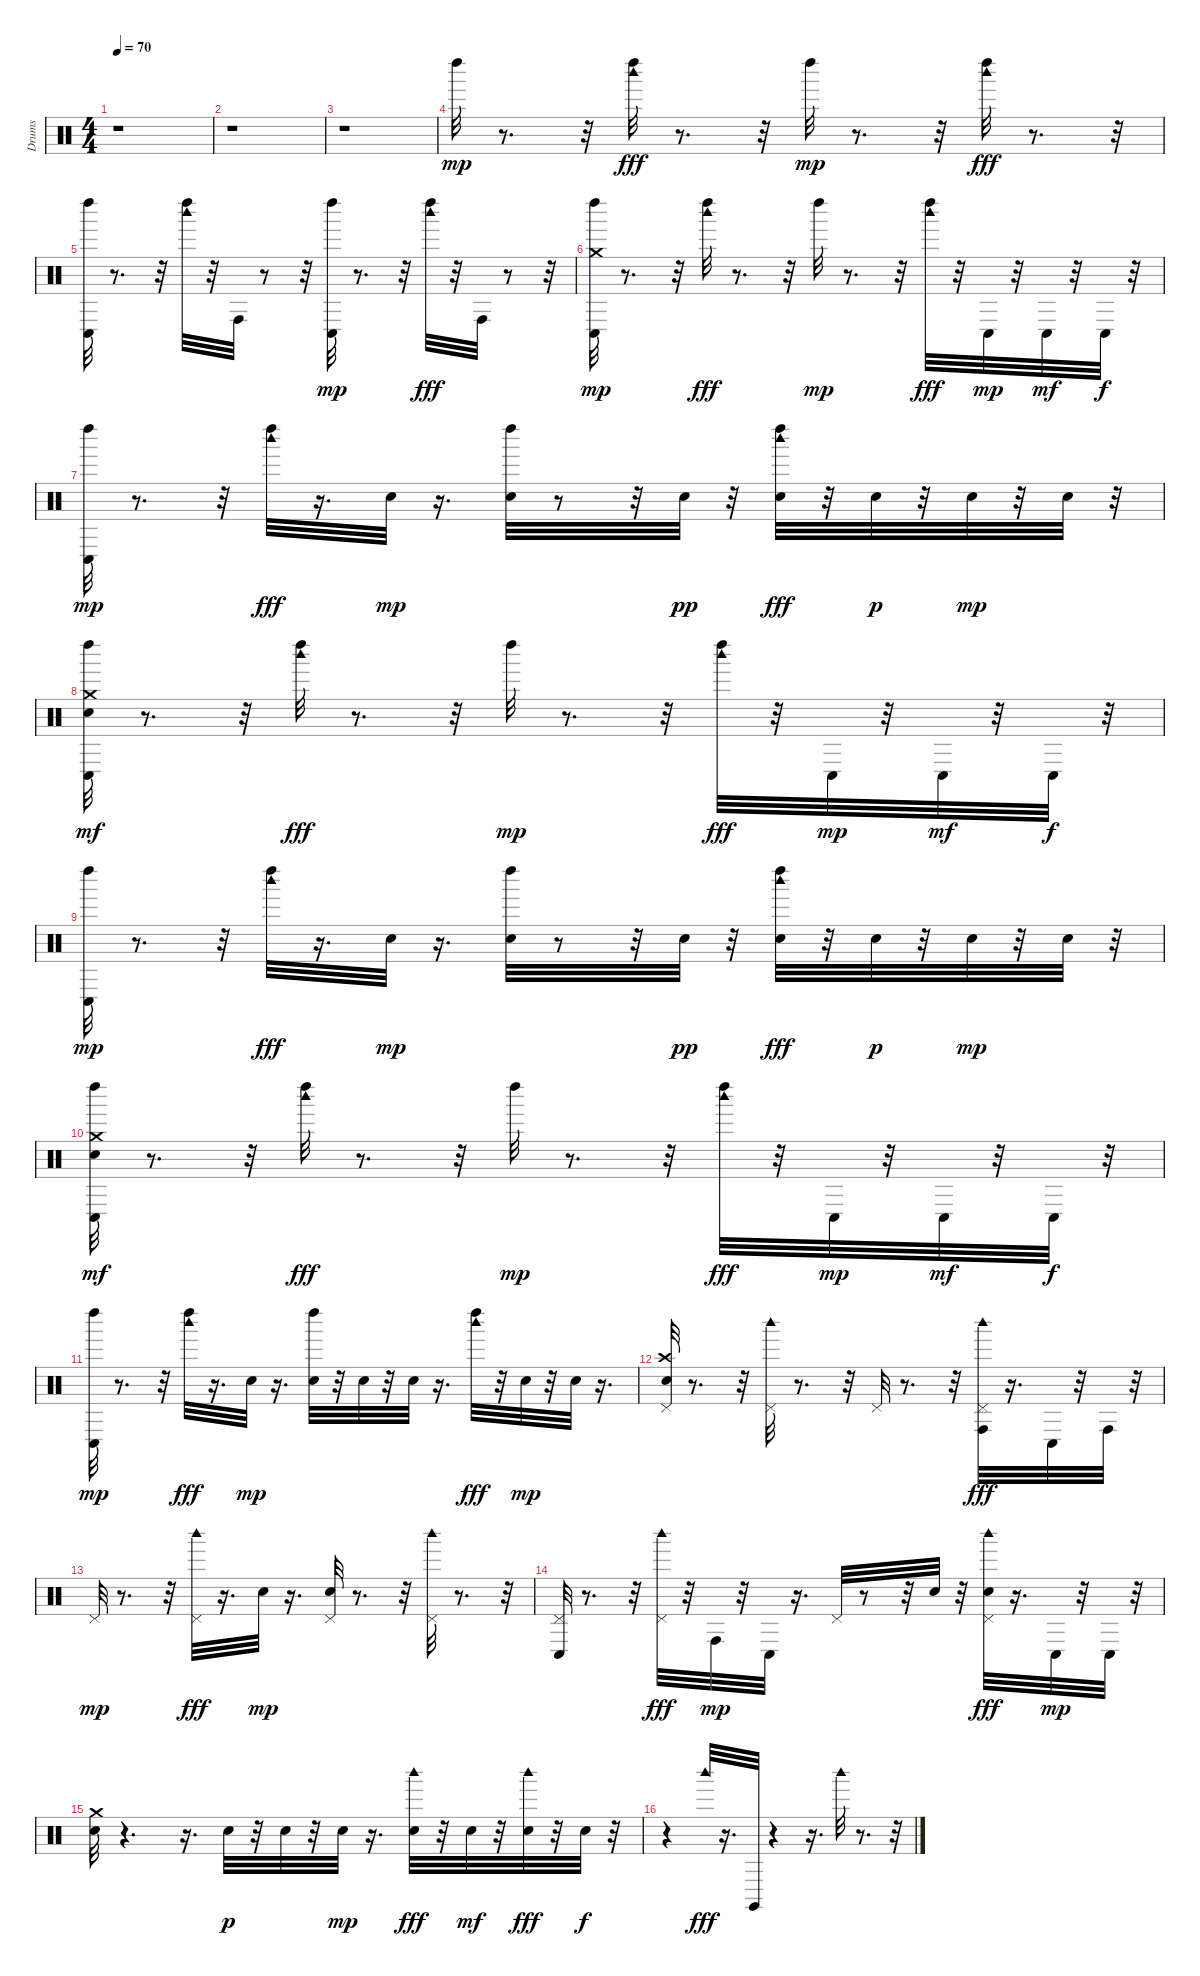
\track ("Drums" "Drums") {instrument percussion}
\staff {score}
\articulation defaults
\ts (4 4)
\tempo 70
\clef neutral
\ks c
r.1{dy mp} |
r.1 |
r.1 |
"Left Maraca (hit)".32 r.8{d} r.32 ("Left Maraca (hit)" "Woodblock high (hit)").32{dy fff} r.8{d} r.32 "Left Maraca (hit)".32{dy mp} r.8{d} r.32 ("Left Maraca (hit)" "Woodblock high (hit)").32{dy fff} r.8{d} r.32 |
("Left Maraca (hit)" "Conga low (hit)").32 r.8{d} r.32 ("Left Maraca (hit)" "Woodblock high (hit)").32 r.32 "Conga high (hit)".32 r.8 r.32 ("Conga low (hit)" "Left Maraca (hit)").32{dy mp} r.8{d} r.32 ("Left Maraca (hit)" "Woodblock high (hit)").32{dy fff} r.32 "Conga high (hit)".32 r.8 r.32 |
("Crash medium (hit)" "Conga low (hit)" "Left Maraca (hit)").32{dy mp} r.8{d} r.32 ("Left Maraca (hit)" "Woodblock high (hit)").32{dy fff} r.8{d} r.32 "Left Maraca (hit)".32{dy mp} r.8{d} r.32 ("Left Maraca (hit)" "Woodblock high (hit)").32{dy fff} r.32 "Conga low (hit)".32{dy mp} r.32 "Conga low (hit)".32{dy mf} r.32 "Conga low (hit)".32{dy f} r.32 |
("Conga low (hit)" "Left Maraca (hit)").32{dy mp} r.8{d} r.32 ("Left Maraca (hit)" "Woodblock high (hit)").32{dy fff} r.16{d} "Snare (hit)".32{dy mp} r.16{d} ("Left Maraca (hit)" "Snare (hit)").32 r.8 r.32 "Snare (hit) 2".32{dy pp} r.32 ("Snare (hit) 2" "Left Maraca (hit)" "Woodblock high (hit)").32{dy fff} r.32 "Snare (hit) 2".32{dy p} r.32 "Snare (hit) 2".32{dy mp} r.32 "Snare (hit) 2".32 r.32 |
("Crash medium (hit)" "Conga low (hit)" "Left Maraca (hit)" "Snare (hit) 2").32{dy mf} r.8{d} r.32 ("Left Maraca (hit)" "Woodblock high (hit)").32{dy fff} r.8{d} r.32 "Left Maraca (hit)".32{dy mp} r.8{d} r.32 ("Left Maraca (hit)" "Woodblock high (hit)").32{dy fff} r.32 "Conga low (hit)".32{dy mp} r.32 "Conga low (hit)".32{dy mf} r.32 "Conga low (hit)".32{dy f} r.32 |
("Conga low (hit)" "Left Maraca (hit)").32{dy mp} r.8{d} r.32 ("Left Maraca (hit)" "Woodblock high (hit)").32{dy fff} r.16{d} "Snare (hit)".32{dy mp} r.16{d} ("Left Maraca (hit)" "Snare (hit)").32 r.8 r.32 "Snare (hit) 2".32{dy pp} r.32 ("Snare (hit) 2" "Left Maraca (hit)" "Woodblock high (hit)").32{dy fff} r.32 "Snare (hit) 2".32{dy p} r.32 "Snare (hit) 2".32{dy mp} r.32 "Snare (hit) 2".32 r.32 |
("Crash medium (hit)" "Conga low (hit)" "Left Maraca (hit)" "Snare (hit) 2").32{dy mf} r.8{d} r.32 ("Left Maraca (hit)" "Woodblock high (hit)").32{dy fff} r.8{d} r.32 "Left Maraca (hit)".32{dy mp} r.8{d} r.32 ("Left Maraca (hit)" "Woodblock high (hit)").32{dy fff} r.32 "Conga low (hit)".32{dy mp} r.32 "Conga low (hit)".32{dy mf} r.32 "Conga low (hit)".32{dy f} r.32 |
("Left Maraca (hit)" "Conga low (hit)").32{dy mp} r.8{d} r.32 ("Left Maraca (hit)" "Woodblock high (hit)").32{dy fff} r.16{d} "Snare (hit)".32{dy mp} r.16{d} ("Left Maraca (hit)" "Snare (hit)").32 r.32 "Snare (hit) 2".32 r.32 "Snare (hit) 2".32 r.16{d} ("Left Maraca (hit)" "Woodblock high (hit)").32{dy fff} r.32 "Snare (hit) 2".32{dy mp} r.32 "Snare (hit) 2".32 r.16{d} |
("Crash high (hit)" "Snare (hit)" "Pedal Hi-Hat (hit)").32 r.8{d} r.32 ("Woodblock high (hit)" "Pedal Hi-Hat (hit)").32 r.8{d} r.32 "Pedal Hi-Hat (hit)".32 r.8{d} r.32 ("Conga high (hit)" "Pedal Hi-Hat (hit)" "Woodblock high (hit)").32{dy fff} r.16{d} "Conga low (hit)".32 r.32 "Conga high (hit)".32 r.32 |
"Pedal Hi-Hat (hit)".32{dy mp} r.8{d} r.32 ("Pedal Hi-Hat (hit)" "Woodblock high (hit)").32{dy fff} r.16{d} "Snare (hit)".32{dy mp} r.16{d} ("Snare (hit)" "Pedal Hi-Hat (hit)").32 r.8{d} r.32 ("Woodblock high (hit)" "Pedal Hi-Hat (hit)").32 r.8{d} r.32 |
("Conga low (hit)" "Pedal Hi-Hat (hit)").32 r.8{d} r.32 ("Pedal Hi-Hat (hit)" "Woodblock high (hit)").32{dy fff} r.32 "Conga high (hit)".32{dy mp} r.32 "Conga low (hit)".32 r.16{d} "Pedal Hi-Hat (hit)".32 r.8 r.32 "Snare (hit)".32 r.32 ("Pedal Hi-Hat (hit)" "Snare (hit)" "Woodblock high (hit)").32{dy fff} r.16{d} "Conga low (hit)".32{dy mp} r.32 "Conga low (hit)".32 r.32 |
("Snare (hit)" "Crash medium (hit)").32 r.4{d} r.16{d} "Snare (hit) 2".32{dy p} r.32 "Snare (hit) 2".32 r.32 "Snare (hit) 2".32{dy mp} r.16{d} ("Snare (hit) 2" "Woodblock high (hit)").32{dy fff} r.32 "Snare (hit) 2".32{dy mf} r.32 ("Snare (hit) 2" "Woodblock high (hit)").32{dy fff} r.32 "Snare (hit) 2".32{dy f} r.32 |
r.4 "Woodblock high (hit)".32{dy fff} r.16{d} "Claves (hit)".32 r.4 r.16{d} "Woodblock high (hit)".32 r.8{d} r.32
